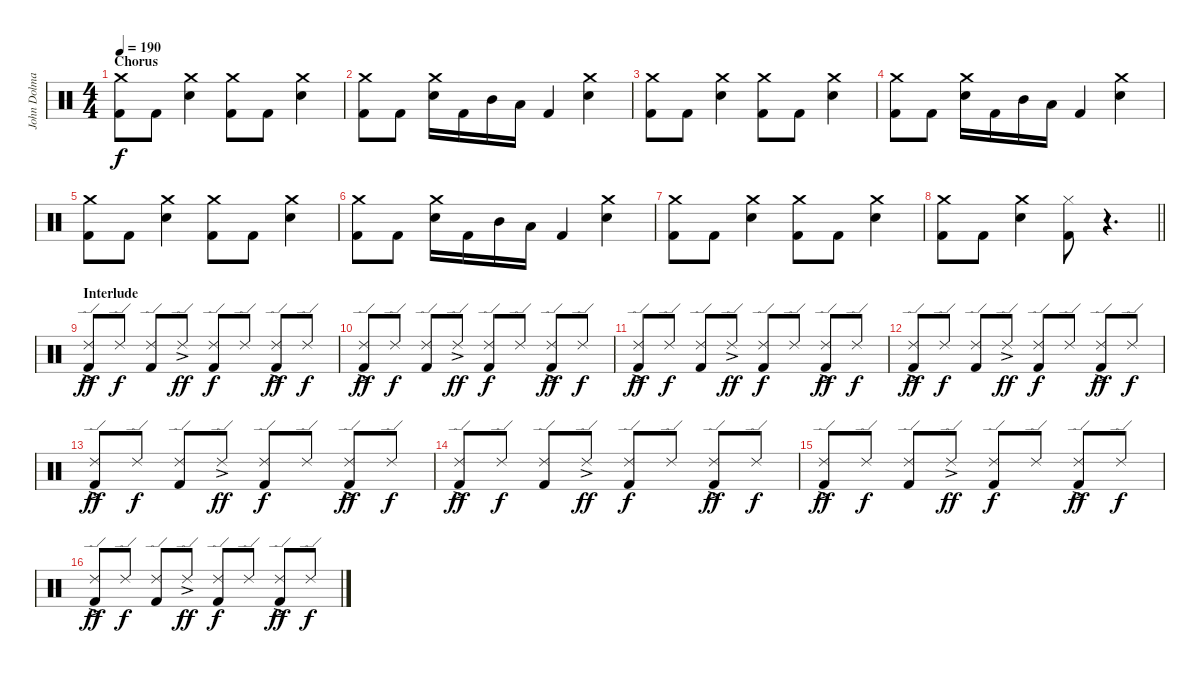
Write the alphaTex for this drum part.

\track ("John Dolmayan" "John Dolma") {instrument percussion}
\staff {score}
\articulation defaults
\ts (4 4)
\section ("" "Chorus")
\tempo 190
\clef neutral
\ks c
("Crash medium (hit)" "Kick (hit) 2").8{dy f} "Kick (hit) 2".8 ("Crash medium (hit)" "Electric Snare (hit)").4 ("Crash medium (hit)" "Kick (hit) 2").8 "Kick (hit) 2".8 ("Crash medium (hit)" "Electric Snare (hit)").4 |
("Crash medium (hit)" "Kick (hit) 2").8 "Kick (hit) 2".8 ("Crash medium (hit)" "Electric Snare (hit)").16 "Kick (hit) 2".16 "Mid Tom (hit)".16 "Low Floor Tom (hit)".16 "Kick (hit) 2".4 ("Crash medium (hit)" "Electric Snare (hit)").4 |
("Crash medium (hit)" "Kick (hit) 2").8 "Kick (hit) 2".8 ("Crash medium (hit)" "Electric Snare (hit)").4 ("Crash medium (hit)" "Kick (hit) 2").8 "Kick (hit) 2".8 ("Crash medium (hit)" "Electric Snare (hit)").4 |
("Crash medium (hit)" "Kick (hit) 2").8 "Kick (hit) 2".8 ("Crash medium (hit)" "Electric Snare (hit)").16 "Kick (hit) 2".16 "Mid Tom (hit)".16 "Low Floor Tom (hit)".16 "Kick (hit) 2".4 ("Crash medium (hit)" "Electric Snare (hit)").4 |
("Crash medium (hit)" "Kick (hit) 2").8 "Kick (hit) 2".8 ("Crash medium (hit)" "Electric Snare (hit)").4 ("Crash medium (hit)" "Kick (hit) 2").8 "Kick (hit) 2".8 ("Crash medium (hit)" "Electric Snare (hit)").4 |
("Crash medium (hit)" "Kick (hit) 2").8 "Kick (hit) 2".8 ("Crash medium (hit)" "Electric Snare (hit)").16 "Kick (hit) 2".16 "Mid Tom (hit)".16 "Low Floor Tom (hit)".16 "Kick (hit) 2".4 ("Crash medium (hit)" "Electric Snare (hit)").4 |
("Crash medium (hit)" "Kick (hit) 2").8 "Kick (hit) 2".8 ("Crash medium (hit)" "Electric Snare (hit)").4 ("Crash medium (hit)" "Kick (hit) 2").8 "Kick (hit) 2".8 ("Crash medium (hit)" "Electric Snare (hit)").4 |
\barLineRight lightlight
("Crash medium (hit)" "Kick (hit) 2").8 "Kick (hit) 2".8 ("Crash medium (hit)" "Electric Snare (hit)").4 ("Hi-Hat (closed)" "Kick (hit) 2").8 r.4{d} |
\section ("" "Interlude")
("Ride (edge) 2"{ac} "Kick (hit) 2").8{dy ff} "Ride (edge) 2".8{dy f} ("Ride (edge) 2" "Kick (hit) 2").8 "Ride (edge) 2"{ac}.8{dy ff} ("Ride (edge) 2" "Kick (hit) 2").8{dy f} "Ride (edge) 2".8 ("Ride (edge) 2"{ac} "Kick (hit) 2").8{dy ff} "Ride (edge) 2".8{dy f} |
("Ride (edge) 2"{ac} "Kick (hit) 2").8{dy ff} "Ride (edge) 2".8{dy f} ("Ride (edge) 2" "Kick (hit) 2").8 "Ride (edge) 2"{ac}.8{dy ff} ("Ride (edge) 2" "Kick (hit) 2").8{dy f} "Ride (edge) 2".8 ("Ride (edge) 2"{ac} "Kick (hit) 2").8{dy ff} "Ride (edge) 2".8{dy f} |
("Ride (edge) 2"{ac} "Kick (hit) 2").8{dy ff} "Ride (edge) 2".8{dy f} ("Ride (edge) 2" "Kick (hit) 2").8 "Ride (edge) 2"{ac}.8{dy ff} ("Ride (edge) 2" "Kick (hit) 2").8{dy f} "Ride (edge) 2".8 ("Ride (edge) 2"{ac} "Kick (hit) 2").8{dy ff} "Ride (edge) 2".8{dy f} |
("Ride (edge) 2"{ac} "Kick (hit) 2").8{dy ff} "Ride (edge) 2".8{dy f} ("Ride (edge) 2" "Kick (hit) 2").8 "Ride (edge) 2"{ac}.8{dy ff} ("Ride (edge) 2" "Kick (hit) 2").8{dy f} "Ride (edge) 2".8 ("Ride (edge) 2"{ac} "Kick (hit) 2").8{dy ff} "Ride (edge) 2".8{dy f} |
("Ride (edge) 2"{ac} "Kick (hit) 2").8{dy ff} "Ride (edge) 2".8{dy f} ("Ride (edge) 2" "Kick (hit) 2").8 "Ride (edge) 2"{ac}.8{dy ff} ("Ride (edge) 2" "Kick (hit) 2").8{dy f} "Ride (edge) 2".8 ("Ride (edge) 2"{ac} "Kick (hit) 2").8{dy ff} "Ride (edge) 2".8{dy f} |
("Ride (edge) 2"{ac} "Kick (hit) 2").8{dy ff} "Ride (edge) 2".8{dy f} ("Ride (edge) 2" "Kick (hit) 2").8 "Ride (edge) 2"{ac}.8{dy ff} ("Ride (edge) 2" "Kick (hit) 2").8{dy f} "Ride (edge) 2".8 ("Ride (edge) 2"{ac} "Kick (hit) 2").8{dy ff} "Ride (edge) 2".8{dy f} |
("Ride (edge) 2"{ac} "Kick (hit) 2").8{dy ff} "Ride (edge) 2".8{dy f} ("Ride (edge) 2" "Kick (hit) 2").8 "Ride (edge) 2"{ac}.8{dy ff} ("Ride (edge) 2" "Kick (hit) 2").8{dy f} "Ride (edge) 2".8 ("Ride (edge) 2"{ac} "Kick (hit) 2").8{dy ff} "Ride (edge) 2".8{dy f} |
("Ride (edge) 2"{ac} "Kick (hit) 2").8{dy ff} "Ride (edge) 2".8{dy f} ("Ride (edge) 2" "Kick (hit) 2").8 "Ride (edge) 2"{ac}.8{dy ff} ("Ride (edge) 2" "Kick (hit) 2").8{dy f} "Ride (edge) 2".8 ("Ride (edge) 2"{ac} "Kick (hit) 2").8{dy ff} "Ride (edge) 2".8{dy f}
